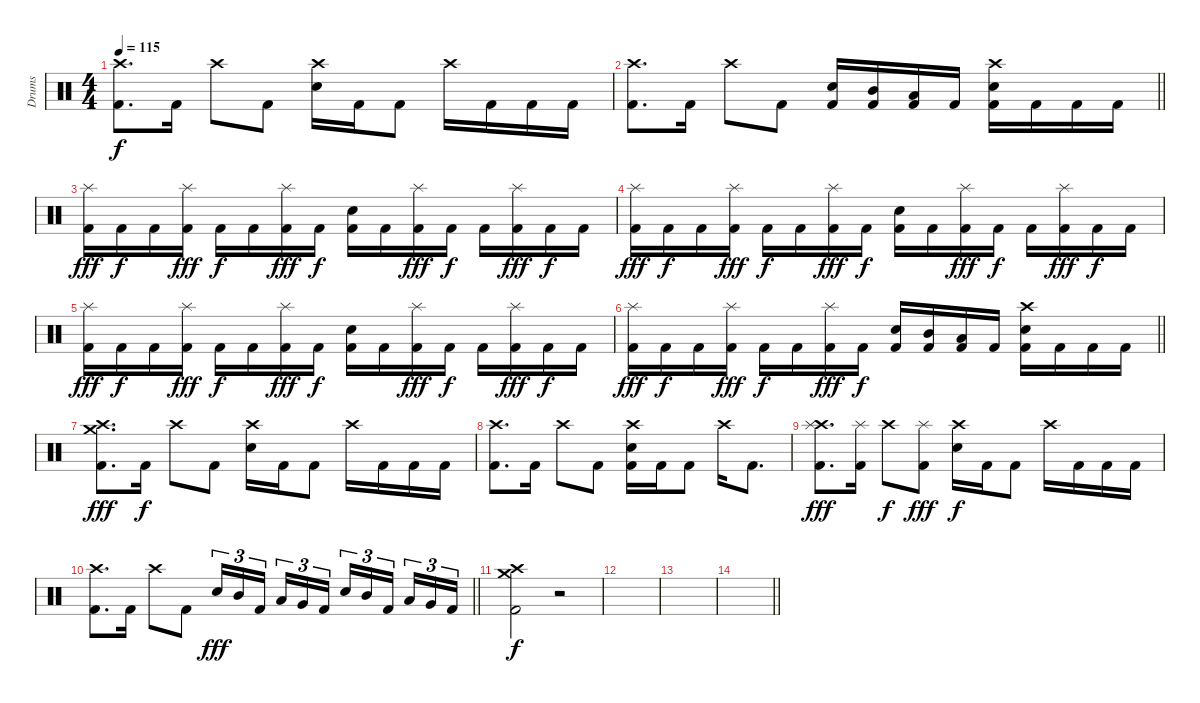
\track ("Drums" "Drums") {instrument percussion}
\staff {score}
\articulation defaults
\ts (4 4)
\tempo 115
\clef neutral
\ks c
("Crash high (hit)" "Kick (hit) 2").8{d dy f} "Kick (hit) 2".16 "Crash high (hit)".8 "Kick (hit) 2".8 ("Crash high (hit)" "Electric Snare (hit)").16 "Kick (hit) 2".16 "Kick (hit) 2".8 "Crash high (hit)".16 "Kick (hit) 2".16 "Kick (hit) 2".16 "Kick (hit) 2".16 |
\barLineRight lightlight
("Crash high (hit)" "Kick (hit) 2").8{d} "Kick (hit) 2".16 "Crash high (hit)".8 "Kick (hit) 2".8 ("Electric Snare (hit)" "Kick (hit) 2").16 ("Mid Tom (hit)" "Kick (hit) 2").16 ("Low Tom (hit)" "Kick (hit) 2").16 "Kick (hit) 2".16 ("Crash high (hit)" "Electric Snare (hit)" "Kick (hit) 2").16 "Kick (hit) 2".16 "Kick (hit) 2".16 "Kick (hit) 2".16 |
("Splash (hit)" "Kick (hit) 2").16{dy fff} "Kick (hit) 2".16{dy f} "Kick (hit) 2".16 ("Splash (hit)" "Kick (hit) 2").16{dy fff} "Kick (hit) 2".16{dy f} "Kick (hit) 2".16 ("Splash (hit)" "Kick (hit) 2").16{dy fff} "Kick (hit) 2".16{dy f} ("Electric Snare (hit)" "Kick (hit) 2").16 "Kick (hit) 2".16 ("Splash (hit)" "Kick (hit) 2").16{dy fff} "Kick (hit) 2".16{dy f} "Kick (hit) 2".16 ("Splash (hit)" "Kick (hit) 2").16{dy fff} "Kick (hit) 2".16{dy f} "Kick (hit) 2".16 |
("Splash (hit)" "Kick (hit) 2").16{dy fff} "Kick (hit) 2".16{dy f} "Kick (hit) 2".16 ("Splash (hit)" "Kick (hit) 2").16{dy fff} "Kick (hit) 2".16{dy f} "Kick (hit) 2".16 ("Splash (hit)" "Kick (hit) 2").16{dy fff} "Kick (hit) 2".16{dy f} ("Electric Snare (hit)" "Kick (hit) 2").16 "Kick (hit) 2".16 ("Splash (hit)" "Kick (hit) 2").16{dy fff} "Kick (hit) 2".16{dy f} "Kick (hit) 2".16 ("Splash (hit)" "Kick (hit) 2").16{dy fff} "Kick (hit) 2".16{dy f} "Kick (hit) 2".16 |
("Splash (hit)" "Kick (hit) 2").16{dy fff} "Kick (hit) 2".16{dy f} "Kick (hit) 2".16 ("Splash (hit)" "Kick (hit) 2").16{dy fff} "Kick (hit) 2".16{dy f} "Kick (hit) 2".16 ("Splash (hit)" "Kick (hit) 2").16{dy fff} "Kick (hit) 2".16{dy f} ("Electric Snare (hit)" "Kick (hit) 2").16 "Kick (hit) 2".16 ("Splash (hit)" "Kick (hit) 2").16{dy fff} "Kick (hit) 2".16{dy f} "Kick (hit) 2".16 ("Splash (hit)" "Kick (hit) 2").16{dy fff} "Kick (hit) 2".16{dy f} "Kick (hit) 2".16 |
\barLineRight lightlight
("Splash (hit)" "Kick (hit) 2").16{dy fff} "Kick (hit) 2".16{dy f} "Kick (hit) 2".16 ("Splash (hit)" "Kick (hit) 2").16{dy fff} "Kick (hit) 2".16{dy f} "Kick (hit) 2".16 ("Splash (hit)" "Kick (hit) 2").16{dy fff} "Kick (hit) 2".16{dy f} ("Electric Snare (hit)" "Kick (hit) 2").16 ("Mid Tom (hit)" "Kick (hit) 2").16 ("Low Tom (hit)" "Kick (hit) 2").16 "Kick (hit) 2".16 ("Crash high (hit)" "Electric Snare (hit)" "Kick (hit) 2").16 "Kick (hit) 2".16 "Kick (hit) 2".16 "Kick (hit) 2".16 |
("Crash high (hit)" "Crash medium (hit)" "Kick (hit) 2").8{d dy fff} "Kick (hit) 2".16{dy f} "Crash high (hit)".8 "Kick (hit) 2".8 ("Crash high (hit)" "Electric Snare (hit)").16 "Kick (hit) 2".16 "Kick (hit) 2".8 "Crash high (hit)".16 "Kick (hit) 2".16 "Kick (hit) 2".16 "Kick (hit) 2".16 |
("Crash high (hit)" "Kick (hit) 2").8{d} "Kick (hit) 2".16 "Crash high (hit)".8 "Kick (hit) 2".8 ("Crash high (hit)" "Electric Snare (hit)" "Kick (hit) 2").16 "Kick (hit) 2".16 "Kick (hit) 2".8 "Crash high (hit)".16 "Kick (hit) 2".8{d} |
("Crash high (hit)" "Splash (hit)" "Kick (hit) 2").8{d dy fff} ("Splash (hit)" "Kick (hit) 2").16 "Crash high (hit)".8{dy f} ("Splash (hit)" "Kick (hit) 2").8{dy fff} ("Crash high (hit)" "Electric Snare (hit)").16{dy f} "Kick (hit) 2".16 "Kick (hit) 2".8 "Crash high (hit)".16 "Kick (hit) 2".16 "Kick (hit) 2".16 "Kick (hit) 2".16 |
\barLineRight lightlight
("Crash high (hit)" "Kick (hit) 2").8{d} "Kick (hit) 2".16 "Crash high (hit)".8 "Kick (hit) 2".8 "Electric Snare (hit)".16{tu (3 2) dy fff} "Mid Tom (hit)".16{tu (3 2)} "Kick (hit) 2".16{tu (3 2) beam splitsecondary} "Low Tom (hit)".16{tu (3 2)} "Very Low Tom (hit)".16{tu (3 2)} "Kick (hit) 2".16{tu (3 2)} "Electric Snare (hit)".16{tu (3 2)} "Mid Tom (hit)".16{tu (3 2)} "Kick (hit) 2".16{tu (3 2) beam splitsecondary} "Low Tom (hit)".16{tu (3 2)} "Very Low Tom (hit)".16{tu (3 2)} "Kick (hit) 2".16{tu (3 2)} |
("Crash high (hit)" "Crash medium (hit)" "Kick (hit) 2").2{dy f} r.2 |
|
|
\barLineRight lightlight
